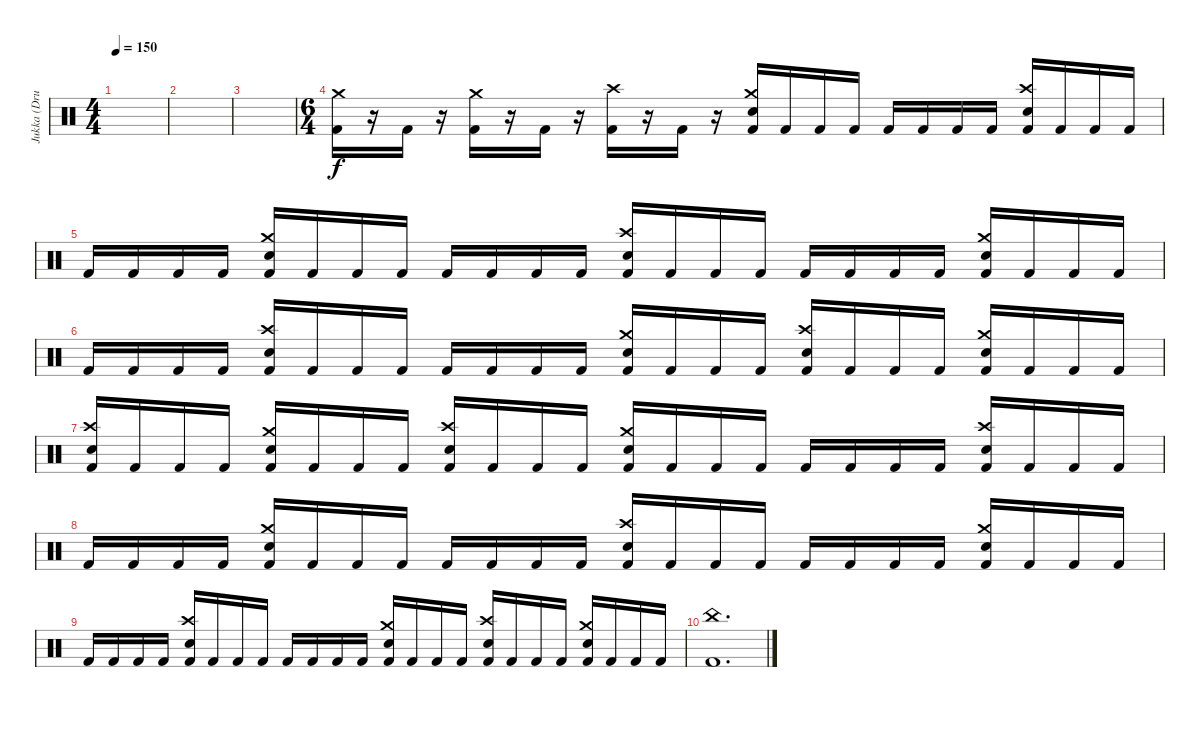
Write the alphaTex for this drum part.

\track ("Jukka (Drums)" "Jukka (Dru") {instrument percussion}
\staff {score}
\articulation defaults
\ts (4 4)
\tempo 150
\clef neutral
\ks c
|
|
|
\ts (6 4)
("Kick (hit) 2" "Crash medium (hit)").16 r.16 "Kick (hit) 2".16 r.16 ("Kick (hit) 2" "Crash medium (hit)").16 r.16 "Kick (hit) 2".16 r.16 ("Kick (hit) 2" "Crash high (hit)").16 r.16 "Kick (hit) 2".16 r.16 ("Kick (hit) 2" "Snare (hit) 2" "Crash medium (hit)").16 "Kick (hit) 2".16 "Kick (hit) 2".16 "Kick (hit) 2".16 "Kick (hit) 2".16 "Kick (hit) 2".16 "Kick (hit) 2".16 "Kick (hit) 2".16 ("Kick (hit) 2" "Snare (hit) 2" "Crash high (hit)").16 "Kick (hit) 2".16 "Kick (hit) 2".16 "Kick (hit) 2".16 |
"Kick (hit) 2".16 "Kick (hit) 2".16 "Kick (hit) 2".16 "Kick (hit) 2".16 ("Kick (hit) 2" "Snare (hit) 2" "Crash medium (hit)").16 "Kick (hit) 2".16 "Kick (hit) 2".16 "Kick (hit) 2".16 "Kick (hit) 2".16 "Kick (hit) 2".16 "Kick (hit) 2".16 "Kick (hit) 2".16 ("Kick (hit) 2" "Snare (hit) 2" "Crash high (hit)").16 "Kick (hit) 2".16 "Kick (hit) 2".16 "Kick (hit) 2".16 "Kick (hit) 2".16 "Kick (hit) 2".16 "Kick (hit) 2".16 "Kick (hit) 2".16 ("Kick (hit) 2" "Snare (hit) 2" "Crash medium (hit)").16 "Kick (hit) 2".16 "Kick (hit) 2".16 "Kick (hit) 2".16 |
"Kick (hit) 2".16 "Kick (hit) 2".16 "Kick (hit) 2".16 "Kick (hit) 2".16 ("Kick (hit) 2" "Snare (hit) 2" "Crash high (hit)").16 "Kick (hit) 2".16 "Kick (hit) 2".16 "Kick (hit) 2".16 "Kick (hit) 2".16 "Kick (hit) 2".16 "Kick (hit) 2".16 "Kick (hit) 2".16 ("Kick (hit) 2" "Snare (hit) 2" "Crash medium (hit)").16 "Kick (hit) 2".16 "Kick (hit) 2".16 "Kick (hit) 2".16 ("Kick (hit) 2" "Snare (hit) 2" "Crash high (hit)").16 "Kick (hit) 2".16 "Kick (hit) 2".16 "Kick (hit) 2".16 ("Kick (hit) 2" "Snare (hit) 2" "Crash medium (hit)").16 "Kick (hit) 2".16 "Kick (hit) 2".16 "Kick (hit) 2".16 |
("Kick (hit) 2" "Snare (hit) 2" "Crash high (hit)").16 "Kick (hit) 2".16 "Kick (hit) 2".16 "Kick (hit) 2".16 ("Kick (hit) 2" "Snare (hit) 2" "Crash medium (hit)").16 "Kick (hit) 2".16 "Kick (hit) 2".16 "Kick (hit) 2".16 ("Kick (hit) 2" "Snare (hit) 2" "Crash high (hit)").16 "Kick (hit) 2".16 "Kick (hit) 2".16 "Kick (hit) 2".16 ("Kick (hit) 2" "Snare (hit) 2" "Crash medium (hit)").16 "Kick (hit) 2".16 "Kick (hit) 2".16 "Kick (hit) 2".16 "Kick (hit) 2".16 "Kick (hit) 2".16 "Kick (hit) 2".16 "Kick (hit) 2".16 ("Kick (hit) 2" "Snare (hit) 2" "Crash high (hit)").16 "Kick (hit) 2".16 "Kick (hit) 2".16 "Kick (hit) 2".16 |
"Kick (hit) 2".16 "Kick (hit) 2".16 "Kick (hit) 2".16 "Kick (hit) 2".16 ("Kick (hit) 2" "Snare (hit) 2" "Crash medium (hit)").16 "Kick (hit) 2".16 "Kick (hit) 2".16 "Kick (hit) 2".16 "Kick (hit) 2".16 "Kick (hit) 2".16 "Kick (hit) 2".16 "Kick (hit) 2".16 ("Kick (hit) 2" "Snare (hit) 2" "Crash high (hit)").16 "Kick (hit) 2".16 "Kick (hit) 2".16 "Kick (hit) 2".16 "Kick (hit) 2".16 "Kick (hit) 2".16 "Kick (hit) 2".16 "Kick (hit) 2".16 ("Kick (hit) 2" "Snare (hit) 2" "Crash medium (hit)").16 "Kick (hit) 2".16 "Kick (hit) 2".16 "Kick (hit) 2".16 |
"Kick (hit) 2".16 "Kick (hit) 2".16 "Kick (hit) 2".16 "Kick (hit) 2".16 ("Kick (hit) 2" "Snare (hit) 2" "Crash high (hit)").16 "Kick (hit) 2".16 "Kick (hit) 2".16 "Kick (hit) 2".16 "Kick (hit) 2".16 "Kick (hit) 2".16 "Kick (hit) 2".16 "Kick (hit) 2".16 ("Kick (hit) 2" "Snare (hit) 2" "Crash medium (hit)").16 "Kick (hit) 2".16 "Kick (hit) 2".16 "Kick (hit) 2".16 ("Kick (hit) 2" "Snare (hit) 2" "Crash high (hit)").16 "Kick (hit) 2".16 "Kick (hit) 2".16 "Kick (hit) 2".16 ("Kick (hit) 2" "Snare (hit) 2" "Crash medium (hit)").16 "Kick (hit) 2".16 "Kick (hit) 2".16 "Kick (hit) 2".16 |
("Kick (hit) 2" "China (hit)").1{d}
